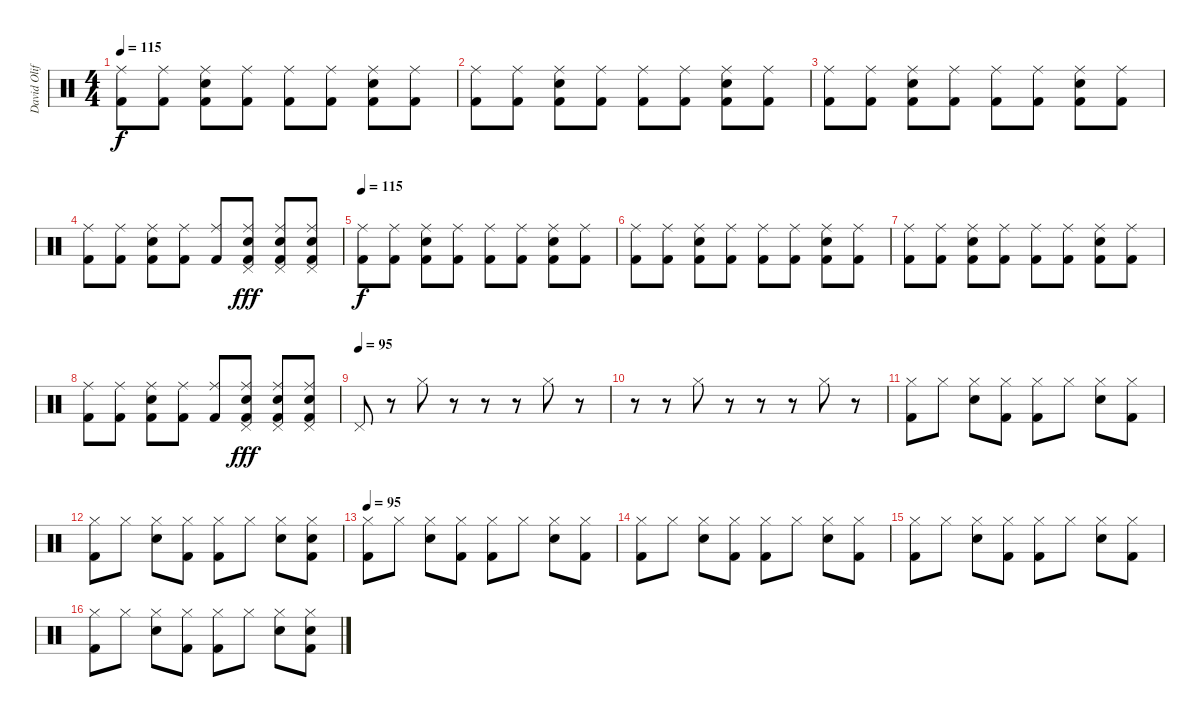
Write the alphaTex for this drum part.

\track ("David Oliffe" "David Olif") {instrument percussion}
\staff {score}
\articulation defaults
\ts (4 4)
\tempo 115
\clef neutral
\ks c
("Ride (middle)" "Kick (hit) 2").8{dy f} ("Ride (middle)" "Kick (hit) 2").8 ("Ride (middle)" "Electric Snare (hit)" "Kick (hit) 2").8 ("Ride (middle)" "Kick (hit) 2").8 ("Ride (middle)" "Kick (hit) 2").8 ("Ride (middle)" "Kick (hit) 2").8 ("Ride (middle)" "Electric Snare (hit)" "Kick (hit) 2").8 ("Ride (middle)" "Kick (hit) 2").8 |
("Ride (middle)" "Kick (hit) 2").8 ("Ride (middle)" "Kick (hit) 2").8 ("Ride (middle)" "Electric Snare (hit)" "Kick (hit) 2").8 ("Ride (middle)" "Kick (hit) 2").8 ("Ride (middle)" "Kick (hit) 2").8 ("Ride (middle)" "Kick (hit) 2").8 ("Ride (middle)" "Electric Snare (hit)" "Kick (hit) 2").8 ("Ride (middle)" "Kick (hit) 2").8 |
("Ride (middle)" "Kick (hit) 2").8 ("Ride (middle)" "Kick (hit) 2").8 ("Ride (middle)" "Electric Snare (hit)" "Kick (hit) 2").8 ("Ride (middle)" "Kick (hit) 2").8 ("Ride (middle)" "Kick (hit) 2").8 ("Ride (middle)" "Kick (hit) 2").8 ("Ride (middle)" "Electric Snare (hit)" "Kick (hit) 2").8 ("Ride (middle)" "Kick (hit) 2").8 |
("Ride (middle)" "Kick (hit) 2").8 ("Ride (middle)" "Kick (hit) 2").8 ("Ride (middle)" "Electric Snare (hit)" "Kick (hit) 2").8 ("Ride (middle)" "Kick (hit) 2").8 ("Ride (middle)" "Kick (hit) 2").8 ("Pedal Hi-Hat (hit)" "Ride (middle)" "Electric Snare (hit)" "Kick (hit) 2").8{dy fff} ("Pedal Hi-Hat (hit)" "Ride (middle)" "Electric Snare (hit)" "Kick (hit) 2").8 ("Pedal Hi-Hat (hit)" "Ride (middle)" "Electric Snare (hit)" "Kick (hit) 2").8 |
\tempo 115
("Ride (middle)" "Kick (hit) 2").8{dy f} ("Ride (middle)" "Kick (hit) 2").8 ("Ride (middle)" "Electric Snare (hit)" "Kick (hit) 2").8 ("Ride (middle)" "Kick (hit) 2").8 ("Ride (middle)" "Kick (hit) 2").8 ("Ride (middle)" "Kick (hit) 2").8 ("Ride (middle)" "Electric Snare (hit)" "Kick (hit) 2").8 ("Ride (middle)" "Kick (hit) 2").8 |
("Ride (middle)" "Kick (hit) 2").8 ("Ride (middle)" "Kick (hit) 2").8 ("Ride (middle)" "Electric Snare (hit)" "Kick (hit) 2").8 ("Ride (middle)" "Kick (hit) 2").8 ("Ride (middle)" "Kick (hit) 2").8 ("Ride (middle)" "Kick (hit) 2").8 ("Ride (middle)" "Electric Snare (hit)" "Kick (hit) 2").8 ("Ride (middle)" "Kick (hit) 2").8 |
("Ride (middle)" "Kick (hit) 2").8 ("Ride (middle)" "Kick (hit) 2").8 ("Ride (middle)" "Electric Snare (hit)" "Kick (hit) 2").8 ("Ride (middle)" "Kick (hit) 2").8 ("Ride (middle)" "Kick (hit) 2").8 ("Ride (middle)" "Kick (hit) 2").8 ("Ride (middle)" "Electric Snare (hit)" "Kick (hit) 2").8 ("Ride (middle)" "Kick (hit) 2").8 |
("Ride (middle)" "Kick (hit) 2").8 ("Ride (middle)" "Kick (hit) 2").8 ("Ride (middle)" "Electric Snare (hit)" "Kick (hit) 2").8 ("Ride (middle)" "Kick (hit) 2").8 ("Ride (middle)" "Kick (hit) 2").8 ("Pedal Hi-Hat (hit)" "Ride (middle)" "Electric Snare (hit)" "Kick (hit) 2").8{dy fff} ("Pedal Hi-Hat (hit)" "Ride (middle)" "Electric Snare (hit)" "Kick (hit) 2").8 ("Pedal Hi-Hat (hit)" "Ride (middle)" "Electric Snare (hit)" "Kick (hit) 2").8 |
\tempo (95)
"Pedal Hi-Hat (hit)".8 r.8 "Hi-Hat (closed)".8 r.8 r.8 r.8 "Hi-Hat (closed)".8 r.8 |
r.8 r.8 "Hi-Hat (closed)".8 r.8 r.8 r.8 "Hi-Hat (closed)".8 r.8 |
("Hi-Hat (closed)" "Kick (hit) 2").8 "Hi-Hat (closed)".8 ("Hi-Hat (closed)" "Electric Snare (hit)").8 ("Hi-Hat (closed)" "Kick (hit) 2").8 ("Hi-Hat (closed)" "Kick (hit) 2").8 "Hi-Hat (closed)".8 ("Hi-Hat (closed)" "Electric Snare (hit)").8 ("Hi-Hat (closed)" "Kick (hit) 2").8 |
("Hi-Hat (closed)" "Kick (hit) 2").8 "Hi-Hat (closed)".8 ("Hi-Hat (closed)" "Electric Snare (hit)").8 ("Hi-Hat (closed)" "Kick (hit) 2").8 ("Hi-Hat (closed)" "Kick (hit) 2").8 "Hi-Hat (closed)".8 ("Hi-Hat (closed)" "Electric Snare (hit)").8 ("Hi-Hat (closed)" "Electric Snare (hit)" "Kick (hit) 2").8 |
\tempo 95
("Hi-Hat (closed)" "Kick (hit) 2").8 "Hi-Hat (closed)".8 ("Hi-Hat (closed)" "Electric Snare (hit)").8 ("Hi-Hat (closed)" "Kick (hit) 2").8 ("Hi-Hat (closed)" "Kick (hit) 2").8 "Hi-Hat (closed)".8 ("Hi-Hat (closed)" "Electric Snare (hit)").8 ("Hi-Hat (closed)" "Kick (hit) 2").8 |
("Hi-Hat (closed)" "Kick (hit) 2").8 "Hi-Hat (closed)".8 ("Hi-Hat (closed)" "Electric Snare (hit)").8 ("Hi-Hat (closed)" "Kick (hit) 2").8 ("Hi-Hat (closed)" "Kick (hit) 2").8 "Hi-Hat (closed)".8 ("Hi-Hat (closed)" "Electric Snare (hit)").8 ("Hi-Hat (closed)" "Kick (hit) 2").8 |
("Hi-Hat (closed)" "Kick (hit) 2").8 "Hi-Hat (closed)".8 ("Hi-Hat (closed)" "Electric Snare (hit)").8 ("Hi-Hat (closed)" "Kick (hit) 2").8 ("Hi-Hat (closed)" "Kick (hit) 2").8 "Hi-Hat (closed)".8 ("Hi-Hat (closed)" "Electric Snare (hit)").8 ("Hi-Hat (closed)" "Kick (hit) 2").8 |
("Hi-Hat (closed)" "Kick (hit) 2").8 "Hi-Hat (closed)".8 ("Hi-Hat (closed)" "Electric Snare (hit)").8 ("Hi-Hat (closed)" "Kick (hit) 2").8 ("Hi-Hat (closed)" "Kick (hit) 2").8 "Hi-Hat (closed)".8 ("Hi-Hat (closed)" "Electric Snare (hit)").8 ("Hi-Hat (closed)" "Electric Snare (hit)" "Kick (hit) 2").8
